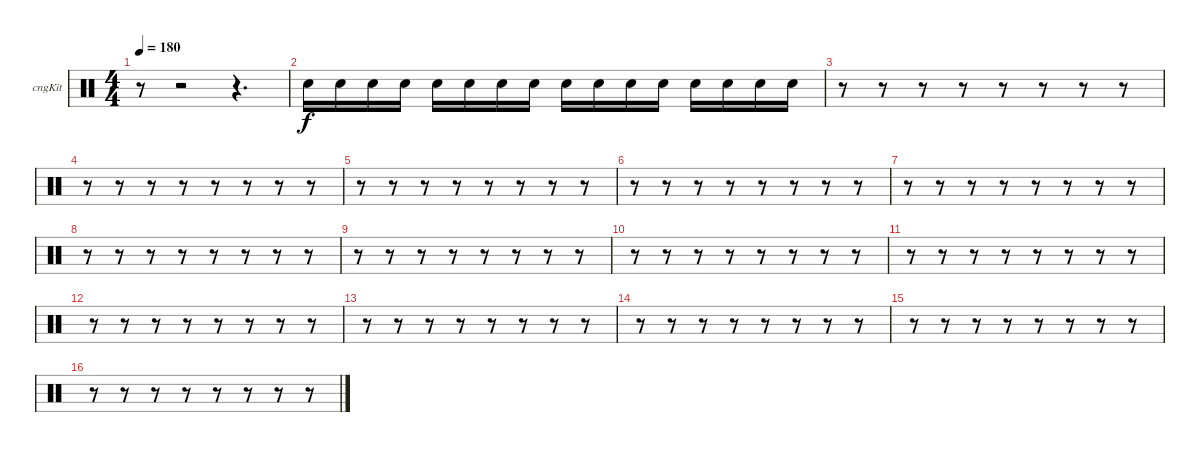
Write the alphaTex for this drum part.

\bracketExtendMode groupsimilarinstruments
\firstSystemTrackNameOrientation horizontal
\otherSystemsTrackNameOrientation horizontal
\track ("Congas" "cngKit") {instrument percussion}
\staff {score}
\articulation defaults
\ts (4 4)
\tempo 180
\clef neutral
\ks c
r.8{dy f} r.2 r.4{d} |
"Snare (hit) 2".16 "Snare (hit) 2".16 "Snare (hit) 2".16 "Snare (hit) 2".16 "Snare (hit) 2".16 "Snare (hit) 2".16 "Snare (hit) 2".16 "Snare (hit) 2".16 "Snare (hit) 2".16 "Snare (hit) 2".16 "Snare (hit) 2".16 "Snare (hit) 2".16 "Snare (hit) 2".16 "Snare (hit) 2".16 "Snare (hit) 2".16 "Snare (hit) 2".16 |
r.8 r.8 r.8 r.8 r.8 r.8 r.8 r.8 |
r.8 r.8 r.8 r.8 r.8 r.8 r.8 r.8 |
r.8 r.8 r.8 r.8 r.8 r.8 r.8 r.8 |
r.8 r.8 r.8 r.8 r.8 r.8 r.8 r.8 |
r.8 r.8 r.8 r.8 r.8 r.8 r.8 r.8 |
r.8 r.8 r.8 r.8 r.8 r.8 r.8 r.8 |
r.8 r.8 r.8 r.8 r.8 r.8 r.8 r.8 |
r.8 r.8 r.8 r.8 r.8 r.8 r.8 r.8 |
r.8 r.8 r.8 r.8 r.8 r.8 r.8 r.8 |
r.8 r.8 r.8 r.8 r.8 r.8 r.8 r.8 |
r.8 r.8 r.8 r.8 r.8 r.8 r.8 r.8 |
r.8 r.8 r.8 r.8 r.8 r.8 r.8 r.8 |
r.8 r.8 r.8 r.8 r.8 r.8 r.8 r.8 |
r.8 r.8 r.8 r.8 r.8 r.8 r.8 r.8
